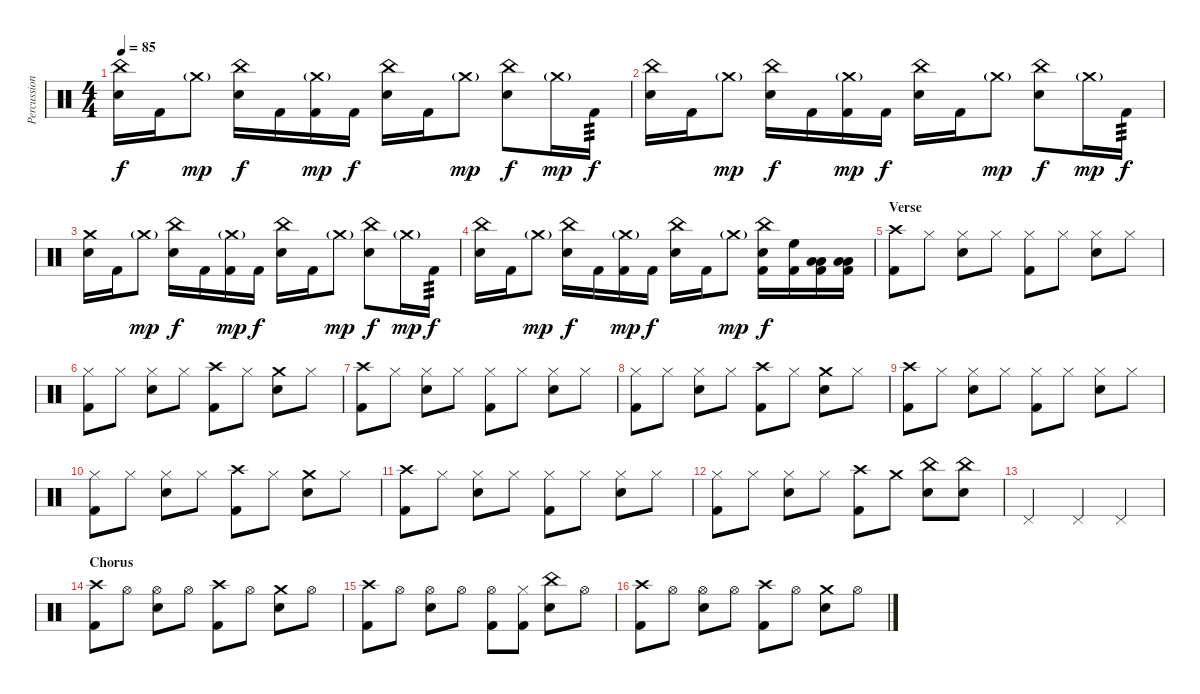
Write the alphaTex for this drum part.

\track ("Percussions" "Percussion") {instrument percussion}
\staff {score}
\articulation defaults
\ts (4 4)
\tempo 85
\clef neutral
\ks c
("China (hit)" "Snare (hit) 2").16{dy f} "Kick (hit) 2".16 "Crash medium (hit)"{g}.8{dy mp} ("China (hit)" "Snare (hit) 2").16{dy f} "Kick (hit) 2".16 ("Crash medium (hit)"{g} "Kick (hit) 2").16{dy mp} "Kick (hit) 2".16{dy f} ("China (hit)" "Snare (hit) 2").16 "Kick (hit) 2".16 "Crash medium (hit)"{g}.8{dy mp} ("China (hit)" "Snare (hit) 2").8{dy f} "Crash medium (hit)"{g}.16{dy mp} "Kick (hit) 2".16{tp 3 dy f} |
("China (hit)" "Snare (hit) 2").16 "Kick (hit) 2".16 "Crash medium (hit)"{g}.8{dy mp} ("China (hit)" "Snare (hit) 2").16{dy f} "Kick (hit) 2".16 ("Crash medium (hit)"{g} "Kick (hit) 2").16{dy mp} "Kick (hit) 2".16{dy f} ("China (hit)" "Snare (hit) 2").16 "Kick (hit) 2".16 "Crash medium (hit)"{g}.8{dy mp} ("China (hit)" "Snare (hit) 2").8{dy f} "Crash medium (hit)"{g}.16{dy mp} "Kick (hit) 2".16{tp 3 dy f} |
("Crash medium (hit)" "Snare (hit) 2").16 "Kick (hit) 2".16 "Crash medium (hit)"{g}.8{dy mp} ("China (hit)" "Snare (hit) 2").16{dy f} "Kick (hit) 2".16 ("Crash medium (hit)"{g} "Kick (hit) 2").16{dy mp} "Kick (hit) 2".16{dy f} ("China (hit)" "Snare (hit) 2").16 "Kick (hit) 2".16 "Crash medium (hit)"{g}.8{dy mp} ("China (hit)" "Snare (hit) 2").8{dy f} "Crash medium (hit)"{g}.16{dy mp} "Kick (hit) 2".16{tp 3 dy f} |
("China (hit)" "Snare (hit) 2").16 "Kick (hit) 2".16 "Crash medium (hit)"{g}.8{dy mp} ("China (hit)" "Snare (hit) 2").16{dy f} "Kick (hit) 2".16 ("Crash medium (hit)"{g} "Kick (hit) 2").16{dy mp} "Kick (hit) 2".16{dy f} ("China (hit)" "Snare (hit) 2").16 "Kick (hit) 2".16 "Crash medium (hit)"{g}.8{dy mp} ("China (hit)" "Snare (hit) 2" "Kick (hit) 2").16{dy f} ("High Floor Tom (hit)" "Kick (hit) 2").16 ("Low Tom (hit)" "Low Floor Tom (hit)" "Kick (hit) 2").16 ("Low Tom (hit)" "Low Floor Tom (hit)" "Kick (hit) 2").16 |
\section ("" "Verse")
("Crash high (hit)" "Kick (hit) 2").8 "Hi-Hat (closed)".8 ("Hi-Hat (closed)" "Snare (hit) 2").8 "Hi-Hat (closed)".8 ("Hi-Hat (closed)" "Kick (hit) 2").8 "Hi-Hat (closed)".8 ("Hi-Hat (closed)" "Snare (hit) 2").8 "Hi-Hat (closed)".8 |
("Hi-Hat (closed)" "Kick (hit) 2").8 "Hi-Hat (closed)".8 ("Hi-Hat (closed)" "Snare (hit) 2").8 "Hi-Hat (closed)".8 ("Crash high (hit)" "Kick (hit) 2").8 "Hi-Hat (closed)".8 ("Crash medium (hit)" "Snare (hit) 2").8 "Hi-Hat (closed)".8 |
("Crash high (hit)" "Kick (hit) 2").8 "Hi-Hat (closed)".8 ("Hi-Hat (closed)" "Snare (hit) 2").8 "Hi-Hat (closed)".8 ("Hi-Hat (closed)" "Kick (hit) 2").8 "Hi-Hat (closed)".8 ("Hi-Hat (closed)" "Snare (hit) 2").8 "Hi-Hat (closed)".8 |
("Hi-Hat (closed)" "Kick (hit) 2").8 "Hi-Hat (closed)".8 ("Hi-Hat (closed)" "Snare (hit) 2").8 "Hi-Hat (closed)".8 ("Crash high (hit)" "Kick (hit) 2").8 "Hi-Hat (closed)".8 ("Crash medium (hit)" "Snare (hit) 2").8 "Hi-Hat (closed)".8 |
("Crash high (hit)" "Kick (hit) 2").8 "Hi-Hat (closed)".8 ("Hi-Hat (closed)" "Snare (hit) 2").8 "Hi-Hat (closed)".8 ("Hi-Hat (closed)" "Kick (hit) 2").8 "Hi-Hat (closed)".8 ("Hi-Hat (closed)" "Snare (hit) 2").8 "Hi-Hat (closed)".8 |
("Hi-Hat (closed)" "Kick (hit) 2").8 "Hi-Hat (closed)".8 ("Hi-Hat (closed)" "Snare (hit) 2").8 "Hi-Hat (closed)".8 ("Crash high (hit)" "Kick (hit) 2").8 "Hi-Hat (closed)".8 ("Crash medium (hit)" "Snare (hit) 2").8 "Hi-Hat (closed)".8 |
("Crash high (hit)" "Kick (hit) 2").8 "Hi-Hat (closed)".8 ("Hi-Hat (closed)" "Snare (hit) 2").8 "Hi-Hat (closed)".8 ("Hi-Hat (closed)" "Kick (hit) 2").8 "Hi-Hat (closed)".8 ("Hi-Hat (closed)" "Snare (hit) 2").8 "Hi-Hat (closed)".8 |
("Hi-Hat (closed)" "Kick (hit) 2").8 "Hi-Hat (closed)".8 ("Hi-Hat (closed)" "Snare (hit) 2").8 "Hi-Hat (closed)".8 ("Crash high (hit)" "Kick (hit) 2").8 "Crash medium (hit)".8 ("China (hit)" "Snare (hit) 2").8 ("China (hit)" "Snare (hit) 2").8 |
"Pedal Hi-Hat (hit)".2 "Pedal Hi-Hat (hit)".4 "Pedal Hi-Hat (hit)".4 |
\section ("" "Chorus")
("Crash high (hit)" "Kick (hit) 2").8 "Hi-Hat (open)".8 ("Hi-Hat (open)" "Snare (hit) 2").8 "Hi-Hat (open)".8 ("Crash high (hit)" "Kick (hit) 2").8 "Hi-Hat (open)".8 ("Crash medium (hit)" "Snare (hit) 2").8 "Hi-Hat (open)".8 |
("Crash high (hit)" "Kick (hit) 2").8 "Hi-Hat (open)".8 ("Hi-Hat (open)" "Snare (hit) 2").8 "Hi-Hat (open)".8 ("Hi-Hat (open)" "Kick (hit) 2").8 ("Hi-Hat (closed)" "Kick (hit) 2").8 ("China (hit)" "Snare (hit) 2").8 "Hi-Hat (open)".8 |
("Crash high (hit)" "Kick (hit) 2").8 "Hi-Hat (open)".8 ("Hi-Hat (open)" "Snare (hit) 2").8 "Hi-Hat (open)".8 ("Crash high (hit)" "Kick (hit) 2").8 "Hi-Hat (open)".8 ("Crash medium (hit)" "Snare (hit) 2").8 "Hi-Hat (open)".8
